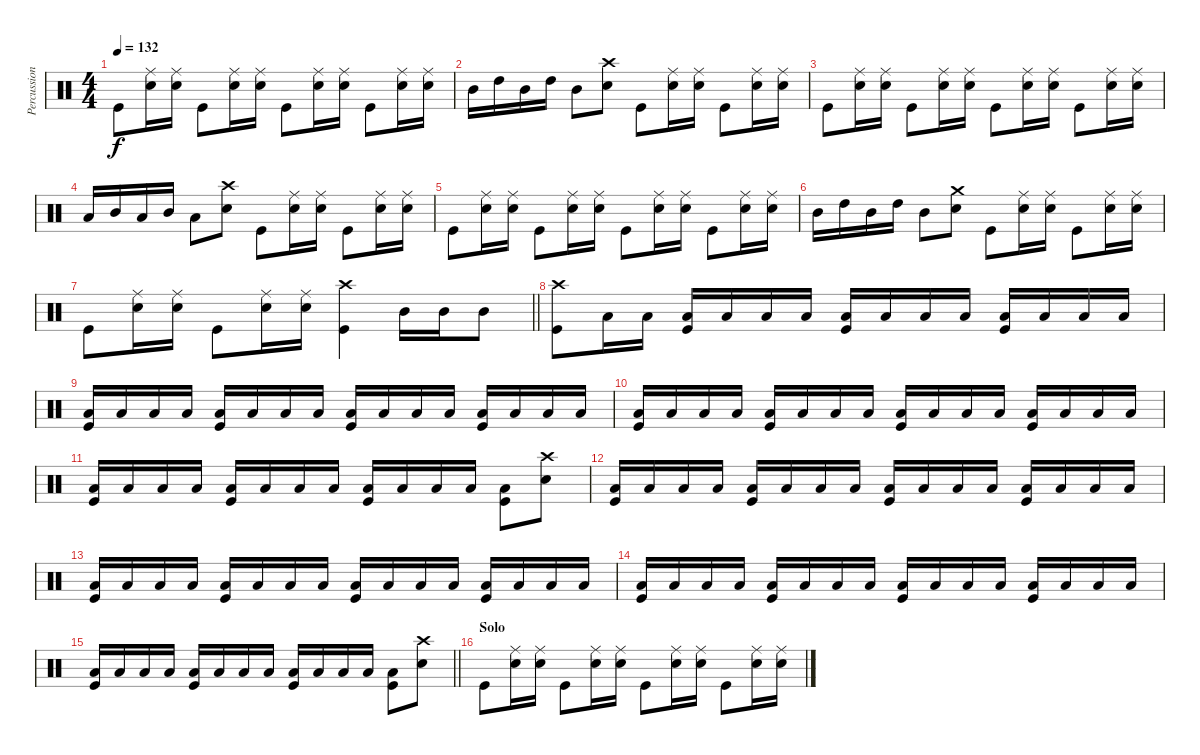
\track ("Percussion" "Percussion") {instrument percussion}
\staff {score}
\articulation defaults
\ts (4 4)
\tempo 132
\clef neutral
\ks c "Kick (hit)".8{dy f}
("Ride (middle)" "Snare (hit) 2").16 ("Ride (middle)" "Snare (hit) 2").16 "Kick (hit)".8 ("Ride (middle)" "Snare (hit) 2").16 ("Ride (middle)" "Snare (hit) 2").16 "Kick (hit)".8 ("Ride (middle)" "Snare (hit) 2").16 ("Ride (middle)" "Snare (hit) 2").16 "Kick (hit)".8 ("Ride (middle)" "Snare (hit) 2").16 ("Ride (middle)" "Snare (hit) 2").16 |
"Mid Tom (hit)".16 "High Tom (hit)".16 "Mid Tom (hit)".16 "High Tom (hit)".16 "Mid Tom (hit)".8 ("Crash high (hit)" "Snare (hit) 2").8 "Kick (hit)".8 ("Ride (middle)" "Snare (hit) 2").16 ("Ride (middle)" "Snare (hit) 2").16 "Kick (hit)".8 ("Ride (middle)" "Snare (hit) 2").16 ("Ride (middle)" "Snare (hit) 2").16 |
"Kick (hit)".8 ("Ride (middle)" "Snare (hit) 2").16 ("Ride (middle)" "Snare (hit) 2").16 "Kick (hit)".8 ("Ride (middle)" "Snare (hit) 2").16 ("Ride (middle)" "Snare (hit) 2").16 "Kick (hit)".8 ("Ride (middle)" "Snare (hit) 2").16 ("Ride (middle)" "Snare (hit) 2").16 "Kick (hit)".8 ("Ride (middle)" "Snare (hit) 2").16 ("Ride (middle)" "Snare (hit) 2").16 |
"Low Tom (hit)".16 "Mid Tom (hit)".16 "Low Tom (hit)".16 "Mid Tom (hit)".16 "Low Tom (hit)".8 ("Crash high (hit)" "Snare (hit) 2").8 "Kick (hit)".8 ("Ride (middle)" "Snare (hit) 2").16 ("Ride (middle)" "Snare (hit) 2").16 "Kick (hit)".8 ("Ride (middle)" "Snare (hit) 2").16 ("Ride (middle)" "Snare (hit) 2").16 |
"Kick (hit)".8 ("Ride (middle)" "Snare (hit) 2").16 ("Ride (middle)" "Snare (hit) 2").16 "Kick (hit)".8 ("Ride (middle)" "Snare (hit) 2").16 ("Ride (middle)" "Snare (hit) 2").16 "Kick (hit)".8 ("Ride (middle)" "Snare (hit) 2").16 ("Ride (middle)" "Snare (hit) 2").16 "Kick (hit)".8 ("Ride (middle)" "Snare (hit) 2").16 ("Ride (middle)" "Snare (hit) 2").16 |
"Mid Tom (hit)".16 "High Tom (hit)".16 "Mid Tom (hit)".16 "High Tom (hit)".16 "Mid Tom (hit)".8 ("Crash medium (hit)" "Snare (hit) 2").8 "Kick (hit)".8 ("Ride (middle)" "Snare (hit) 2").16 ("Ride (middle)" "Snare (hit) 2").16 "Kick (hit)".8 ("Ride (middle)" "Snare (hit) 2").16 ("Ride (middle)" "Snare (hit) 2").16 |
\barLineRight lightlight "Kick (hit)".8
("Ride (middle)" "Snare (hit) 2").16 ("Ride (middle)" "Snare (hit) 2").16 "Kick (hit)".8 ("Ride (middle)" "Snare (hit) 2").16 ("Ride (middle)" "Snare (hit) 2").16 ("Kick (hit)" "Crash high (hit)").4 "Mid Tom (hit)".16 "Mid Tom (hit)".16 "Mid Tom (hit)".8 |
("Kick (hit)" "Crash high (hit)").8 "Low Tom (hit)".16 "Low Tom (hit)".16 ("Low Tom (hit)" "Kick (hit)").16 "Low Tom (hit)".16 "Low Tom (hit)".16 "Low Tom (hit)".16 ("Low Tom (hit)" "Kick (hit)").16 "Low Tom (hit)".16 "Low Tom (hit)".16 "Low Tom (hit)".16 ("Low Tom (hit)" "Kick (hit)").16 "Low Tom (hit)".16 "Low Tom (hit)".16 "Low Tom (hit)".16 |
("Low Tom (hit)" "Kick (hit)").16 "Low Tom (hit)".16 "Low Tom (hit)".16 "Low Tom (hit)".16 ("Low Tom (hit)" "Kick (hit)").16 "Low Tom (hit)".16 "Low Tom (hit)".16 "Low Tom (hit)".16 ("Low Tom (hit)" "Kick (hit)").16 "Low Tom (hit)".16 "Low Tom (hit)".16 "Low Tom (hit)".16 ("Low Tom (hit)" "Kick (hit)").16 "Low Tom (hit)".16 "Low Tom (hit)".16 "Low Tom (hit)".16 |
("Low Tom (hit)" "Kick (hit)").16 "Low Tom (hit)".16 "Low Tom (hit)".16 "Low Tom (hit)".16 ("Low Tom (hit)" "Kick (hit)").16 "Low Tom (hit)".16 "Low Tom (hit)".16 "Low Tom (hit)".16 ("Low Tom (hit)" "Kick (hit)").16 "Low Tom (hit)".16 "Low Tom (hit)".16 "Low Tom (hit)".16 ("Low Tom (hit)" "Kick (hit)").16 "Low Tom (hit)".16 "Low Tom (hit)".16 "Low Tom (hit)".16 |
("Low Tom (hit)" "Kick (hit)").16 "Low Tom (hit)".16 "Low Tom (hit)".16 "Low Tom (hit)".16 ("Low Tom (hit)" "Kick (hit)").16 "Low Tom (hit)".16 "Low Tom (hit)".16 "Low Tom (hit)".16 ("Low Tom (hit)" "Kick (hit)").16 "Low Tom (hit)".16 "Low Tom (hit)".16 "Low Tom (hit)".16 ("Low Tom (hit)" "Kick (hit)").8 ("Crash high (hit)" "Snare (hit) 2").8 |
("Low Tom (hit)" "Kick (hit)").16 "Low Tom (hit)".16 "Low Tom (hit)".16 "Low Tom (hit)".16 ("Low Tom (hit)" "Kick (hit)").16 "Low Tom (hit)".16 "Low Tom (hit)".16 "Low Tom (hit)".16 ("Low Tom (hit)" "Kick (hit)").16 "Low Tom (hit)".16 "Low Tom (hit)".16 "Low Tom (hit)".16 ("Low Tom (hit)" "Kick (hit)").16 "Low Tom (hit)".16 "Low Tom (hit)".16 "Low Tom (hit)".16 |
("Low Tom (hit)" "Kick (hit)").16 "Low Tom (hit)".16 "Low Tom (hit)".16 "Low Tom (hit)".16 ("Low Tom (hit)" "Kick (hit)").16 "Low Tom (hit)".16 "Low Tom (hit)".16 "Low Tom (hit)".16 ("Low Tom (hit)" "Kick (hit)").16 "Low Tom (hit)".16 "Low Tom (hit)".16 "Low Tom (hit)".16 ("Low Tom (hit)" "Kick (hit)").16 "Low Tom (hit)".16 "Low Tom (hit)".16 "Low Tom (hit)".16 |
("Low Tom (hit)" "Kick (hit)").16 "Low Tom (hit)".16 "Low Tom (hit)".16 "Low Tom (hit)".16 ("Low Tom (hit)" "Kick (hit)").16 "Low Tom (hit)".16 "Low Tom (hit)".16 "Low Tom (hit)".16 ("Low Tom (hit)" "Kick (hit)").16 "Low Tom (hit)".16 "Low Tom (hit)".16 "Low Tom (hit)".16 ("Low Tom (hit)" "Kick (hit)").16 "Low Tom (hit)".16 "Low Tom (hit)".16 "Low Tom (hit)".16 |
\barLineRight lightlight
("Low Tom (hit)" "Kick (hit)").16 "Low Tom (hit)".16 "Low Tom (hit)".16 "Low Tom (hit)".16 ("Low Tom (hit)" "Kick (hit)").16 "Low Tom (hit)".16 "Low Tom (hit)".16 "Low Tom (hit)".16 ("Low Tom (hit)" "Kick (hit)").16 "Low Tom (hit)".16 "Low Tom (hit)".16 "Low Tom (hit)".16 ("Low Tom (hit)" "Kick (hit)").8 ("Crash high (hit)" "Snare (hit) 2").8 |
\section ("" "Solo")
"Kick (hit)".8 ("Ride (middle)" "Snare (hit) 2").16 ("Ride (middle)" "Snare (hit) 2").16 "Kick (hit)".8 ("Ride (middle)" "Snare (hit) 2").16 ("Ride (middle)" "Snare (hit) 2").16 "Kick (hit)".8 ("Ride (middle)" "Snare (hit) 2").16 ("Ride (middle)" "Snare (hit) 2").16 "Kick (hit)".8 ("Ride (middle)" "Snare (hit) 2").16 ("Ride (middle)" "Snare (hit) 2").16
